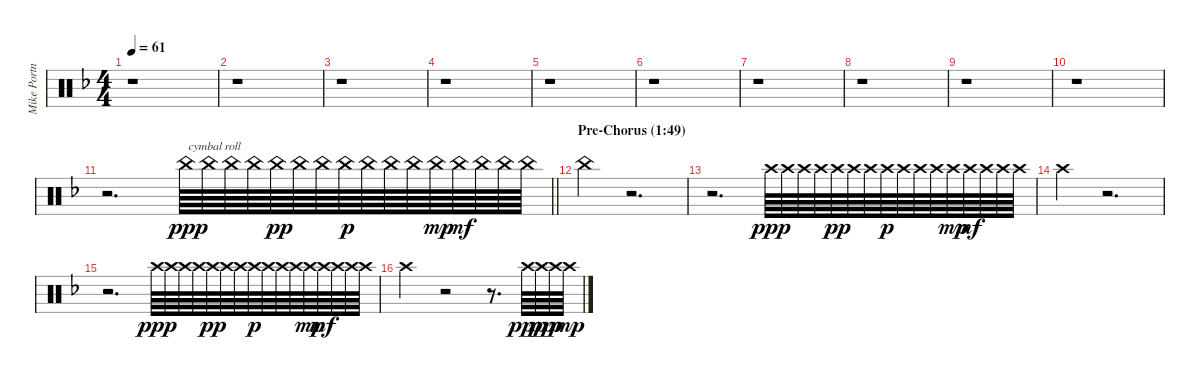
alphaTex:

\track ("Mike Portnoy Drums" "Mike Portn") {instrument percussion}
\staff {score}
\articulation defaults
\ts (4 4)
\tempo 61
\clef neutral
\ks dminor
r.1{dy ppp} |
r.1 |
r.1 |
r.1 |
r.1 |
r.1 |
r.1 |
r.1 |
r.1 |
r.1 |
\barLineRight lightlight
r.2{d} "China (hit)".64{txt "cymbal roll"} "China (hit)".64 "China (hit)".64 "China (hit)".64 "China (hit)".64{dy pp} "China (hit)".64 "China (hit)".64 "China (hit)".64{dy p} "China (hit)".64 "China (hit)".64 "China (hit)".64 "China (hit)".64{dy mp} "China (hit)".64{dy mf} "China (hit)".64 "China (hit)".64 "China (hit)".64 |
\section ("" "Pre-Chorus (1:49)")
"China (hit)".4 r.2{d} |
r.2{d} "Crash high (hit)".64{dy ppp} "Crash high (hit)".64 "Crash high (hit)".64 "Crash high (hit)".64 "Crash high (hit)".64{dy pp} "Crash high (hit)".64 "Crash high (hit)".64 "Crash high (hit)".64{dy p} "Crash high (hit)".64 "Crash high (hit)".64 "Crash high (hit)".64 "Crash high (hit)".64{dy mp} "Crash high (hit)".64{dy mf} "Crash high (hit)".64 "Crash high (hit)".64 "Crash high (hit)".64 |
"Crash high (hit)".4 r.2{d} |
r.2{d} "Crash high (hit)".64{dy ppp} "Crash high (hit)".64 "Crash high (hit)".64 "Crash high (hit)".64 "Crash high (hit)".64{dy pp} "Crash high (hit)".64 "Crash high (hit)".64 "Crash high (hit)".64{dy p} "Crash high (hit)".64 "Crash high (hit)".64 "Crash high (hit)".64 "Crash high (hit)".64{dy mp} "Crash high (hit)".64{dy mf} "Crash high (hit)".64 "Crash high (hit)".64 "Crash high (hit)".64 |
"Crash high (hit)".4 r.2 r.8{d} "Crash high (hit)".64{dy ppp} "Crash high (hit)".64{dy pp} "Crash high (hit)".64{dy p} "Crash high (hit)".64{dy mp}
